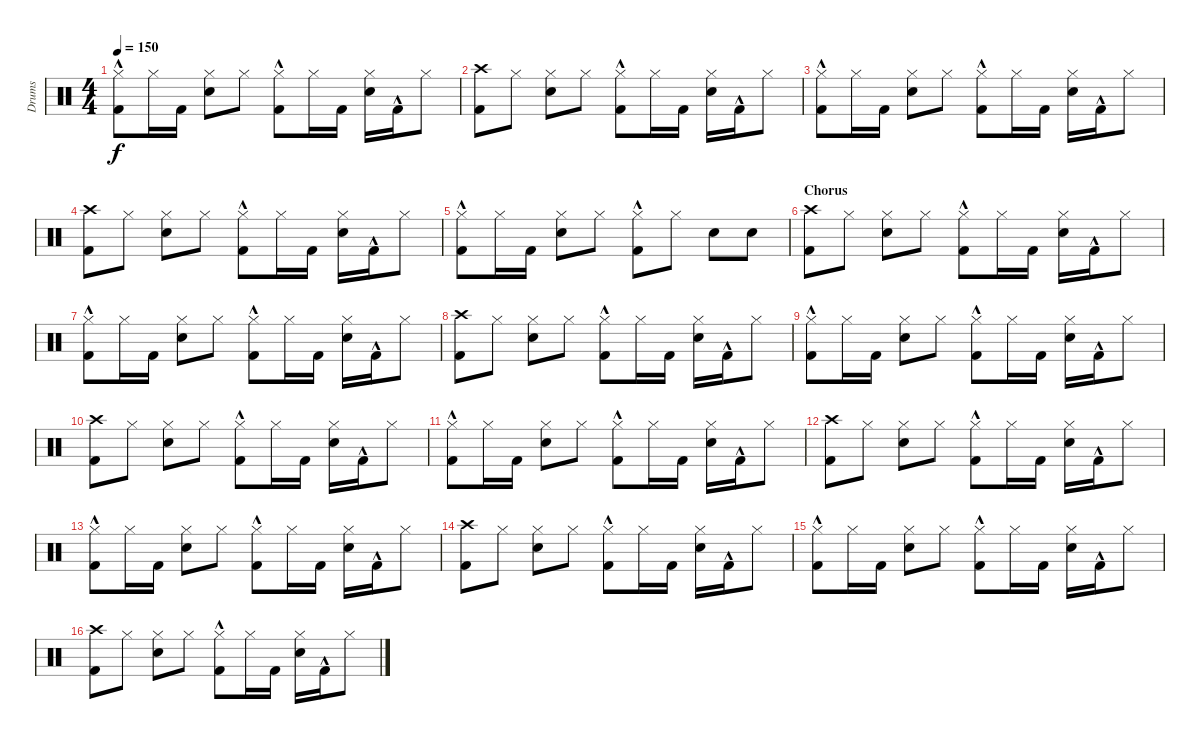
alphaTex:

\track ("Drums" "Drums") {instrument percussion}
\staff {score}
\articulation defaults
\ts (4 4)
\tempo 150
\clef neutral
\ks c
("Hi-Hat (closed)" "Kick (hit) 2"{hac}).8{dy f} "Hi-Hat (closed)".16 "Kick (hit) 2".16 ("Hi-Hat (closed)" "Electric Snare (hit)").8 "Hi-Hat (closed)".8 ("Hi-Hat (closed)" "Kick (hit) 2"{hac}).8 "Hi-Hat (closed)".16 "Kick (hit) 2".16 ("Hi-Hat (closed)" "Electric Snare (hit)").16 "Kick (hit) 2"{hac}.16 "Hi-Hat (closed)".8 |
("Crash high (hit)" "Kick (hit) 2").8 "Hi-Hat (closed)".8 ("Hi-Hat (closed)" "Electric Snare (hit)").8 "Hi-Hat (closed)".8 ("Hi-Hat (closed)" "Kick (hit) 2"{hac}).8 "Hi-Hat (closed)".16 "Kick (hit) 2".16 ("Hi-Hat (closed)" "Electric Snare (hit)").16 "Kick (hit) 2"{hac}.16 "Hi-Hat (closed)".8 |
("Hi-Hat (closed)" "Kick (hit) 2"{hac}).8 "Hi-Hat (closed)".16 "Kick (hit) 2".16 ("Hi-Hat (closed)" "Electric Snare (hit)").8 "Hi-Hat (closed)".8 ("Hi-Hat (closed)" "Kick (hit) 2"{hac}).8 "Hi-Hat (closed)".16 "Kick (hit) 2".16 ("Hi-Hat (closed)" "Electric Snare (hit)").16 "Kick (hit) 2"{hac}.16 "Hi-Hat (closed)".8 |
("Crash high (hit)" "Kick (hit) 2").8 "Hi-Hat (closed)".8 ("Hi-Hat (closed)" "Electric Snare (hit)").8 "Hi-Hat (closed)".8 ("Hi-Hat (closed)" "Kick (hit) 2"{hac}).8 "Hi-Hat (closed)".16 "Kick (hit) 2".16 ("Hi-Hat (closed)" "Electric Snare (hit)").16 "Kick (hit) 2"{hac}.16 "Hi-Hat (closed)".8 |
("Hi-Hat (closed)" "Kick (hit) 2"{hac}).8 "Hi-Hat (closed)".16 "Kick (hit) 2".16 ("Hi-Hat (closed)" "Electric Snare (hit)").8 "Hi-Hat (closed)".8 ("Hi-Hat (closed)" "Kick (hit) 2"{hac}).8 "Hi-Hat (closed)".8 "Electric Snare (hit)".8 "Electric Snare (hit)".8 |
\section ("" "Chorus")
("Crash high (hit)" "Kick (hit) 2").8 "Hi-Hat (closed)".8 ("Hi-Hat (closed)" "Electric Snare (hit)").8 "Hi-Hat (closed)".8 ("Hi-Hat (closed)" "Kick (hit) 2"{hac}).8 "Hi-Hat (closed)".16 "Kick (hit) 2".16 ("Hi-Hat (closed)" "Electric Snare (hit)").16 "Kick (hit) 2"{hac}.16 "Hi-Hat (closed)".8 |
("Hi-Hat (closed)" "Kick (hit) 2"{hac}).8 "Hi-Hat (closed)".16 "Kick (hit) 2".16 ("Hi-Hat (closed)" "Electric Snare (hit)").8 "Hi-Hat (closed)".8 ("Hi-Hat (closed)" "Kick (hit) 2"{hac}).8 "Hi-Hat (closed)".16 "Kick (hit) 2".16 ("Hi-Hat (closed)" "Electric Snare (hit)").16 "Kick (hit) 2"{hac}.16 "Hi-Hat (closed)".8 |
("Crash high (hit)" "Kick (hit) 2").8 "Hi-Hat (closed)".8 ("Hi-Hat (closed)" "Electric Snare (hit)").8 "Hi-Hat (closed)".8 ("Hi-Hat (closed)" "Kick (hit) 2"{hac}).8 "Hi-Hat (closed)".16 "Kick (hit) 2".16 ("Hi-Hat (closed)" "Electric Snare (hit)").16 "Kick (hit) 2"{hac}.16 "Hi-Hat (closed)".8 |
("Hi-Hat (closed)" "Kick (hit) 2"{hac}).8 "Hi-Hat (closed)".16 "Kick (hit) 2".16 ("Hi-Hat (closed)" "Electric Snare (hit)").8 "Hi-Hat (closed)".8 ("Hi-Hat (closed)" "Kick (hit) 2"{hac}).8 "Hi-Hat (closed)".16 "Kick (hit) 2".16 ("Hi-Hat (closed)" "Electric Snare (hit)").16 "Kick (hit) 2"{hac}.16 "Hi-Hat (closed)".8 |
("Crash high (hit)" "Kick (hit) 2").8 "Hi-Hat (closed)".8 ("Hi-Hat (closed)" "Electric Snare (hit)").8 "Hi-Hat (closed)".8 ("Hi-Hat (closed)" "Kick (hit) 2"{hac}).8 "Hi-Hat (closed)".16 "Kick (hit) 2".16 ("Hi-Hat (closed)" "Electric Snare (hit)").16 "Kick (hit) 2"{hac}.16 "Hi-Hat (closed)".8 |
("Hi-Hat (closed)" "Kick (hit) 2"{hac}).8 "Hi-Hat (closed)".16 "Kick (hit) 2".16 ("Hi-Hat (closed)" "Electric Snare (hit)").8 "Hi-Hat (closed)".8 ("Hi-Hat (closed)" "Kick (hit) 2"{hac}).8 "Hi-Hat (closed)".16 "Kick (hit) 2".16 ("Hi-Hat (closed)" "Electric Snare (hit)").16 "Kick (hit) 2"{hac}.16 "Hi-Hat (closed)".8 |
("Crash high (hit)" "Kick (hit) 2").8 "Hi-Hat (closed)".8 ("Hi-Hat (closed)" "Electric Snare (hit)").8 "Hi-Hat (closed)".8 ("Hi-Hat (closed)" "Kick (hit) 2"{hac}).8 "Hi-Hat (closed)".16 "Kick (hit) 2".16 ("Hi-Hat (closed)" "Electric Snare (hit)").16 "Kick (hit) 2"{hac}.16 "Hi-Hat (closed)".8 |
("Hi-Hat (closed)" "Kick (hit) 2"{hac}).8 "Hi-Hat (closed)".16 "Kick (hit) 2".16 ("Hi-Hat (closed)" "Electric Snare (hit)").8 "Hi-Hat (closed)".8 ("Hi-Hat (closed)" "Kick (hit) 2"{hac}).8 "Hi-Hat (closed)".16 "Kick (hit) 2".16 ("Hi-Hat (closed)" "Electric Snare (hit)").16 "Kick (hit) 2"{hac}.16 "Hi-Hat (closed)".8 |
("Crash high (hit)" "Kick (hit) 2").8 "Hi-Hat (closed)".8 ("Hi-Hat (closed)" "Electric Snare (hit)").8 "Hi-Hat (closed)".8 ("Hi-Hat (closed)" "Kick (hit) 2"{hac}).8 "Hi-Hat (closed)".16 "Kick (hit) 2".16 ("Hi-Hat (closed)" "Electric Snare (hit)").16 "Kick (hit) 2"{hac}.16 "Hi-Hat (closed)".8 |
("Hi-Hat (closed)" "Kick (hit) 2"{hac}).8 "Hi-Hat (closed)".16 "Kick (hit) 2".16 ("Hi-Hat (closed)" "Electric Snare (hit)").8 "Hi-Hat (closed)".8 ("Hi-Hat (closed)" "Kick (hit) 2"{hac}).8 "Hi-Hat (closed)".16 "Kick (hit) 2".16 ("Hi-Hat (closed)" "Electric Snare (hit)").16 "Kick (hit) 2"{hac}.16 "Hi-Hat (closed)".8 |
("Crash high (hit)" "Kick (hit) 2").8 "Hi-Hat (closed)".8 ("Hi-Hat (closed)" "Electric Snare (hit)").8 "Hi-Hat (closed)".8 ("Hi-Hat (closed)" "Kick (hit) 2"{hac}).8 "Hi-Hat (closed)".16 "Kick (hit) 2".16 ("Hi-Hat (closed)" "Electric Snare (hit)").16 "Kick (hit) 2"{hac}.16 "Hi-Hat (closed)".8
